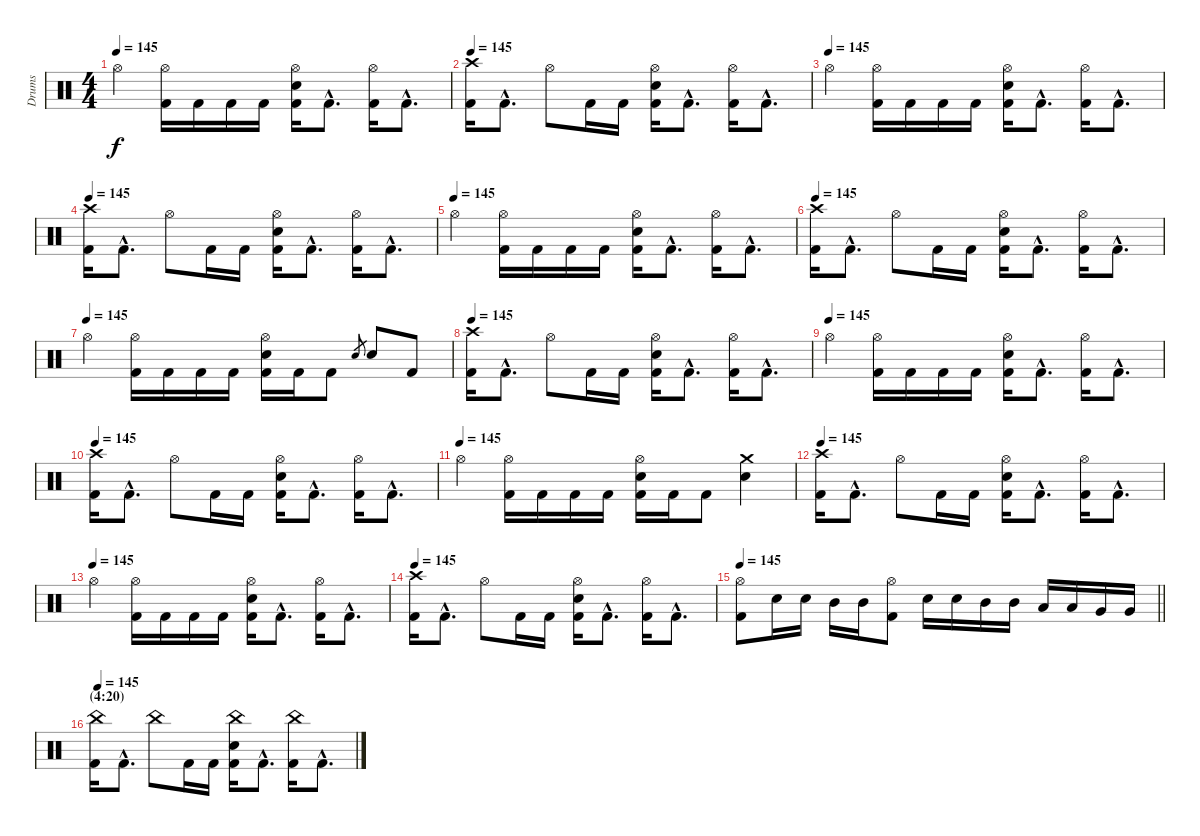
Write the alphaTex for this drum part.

\track ("Drums" "Drums") {instrument percussion}
\staff {score}
\articulation defaults
\ts (4 4)
\tempo 145
\clef neutral
\ks c "Hi-Hat (open)".4{dy f}
("Hi-Hat (open)" "Kick (hit) 2").16 "Kick (hit) 2".16 "Kick (hit) 2".16 "Kick (hit) 2".16 ("Hi-Hat (open)" "Snare (hit) 2" "Kick (hit) 2").16 "Kick (hit) 2"{hac}.8{d} ("Hi-Hat (open)" "Kick (hit) 2").16 "Kick (hit) 2"{hac}.8{d} |
\tempo 145
("Crash high (hit)" "Kick (hit) 2").16 "Kick (hit) 2"{hac}.8{d} "Hi-Hat (open)".8 "Kick (hit) 2".16 "Kick (hit) 2".16 ("Hi-Hat (open)" "Snare (hit) 2" "Kick (hit) 2").16 "Kick (hit) 2"{hac}.8{d} ("Hi-Hat (open)" "Kick (hit) 2").16 "Kick (hit) 2"{hac}.8{d} |
\tempo (145)
"Hi-Hat (open)".4 ("Hi-Hat (open)" "Kick (hit) 2").16 "Kick (hit) 2".16 "Kick (hit) 2".16 "Kick (hit) 2".16 ("Hi-Hat (open)" "Snare (hit) 2" "Kick (hit) 2").16 "Kick (hit) 2"{hac}.8{d} ("Hi-Hat (open)" "Kick (hit) 2").16 "Kick (hit) 2"{hac}.8{d} |
\tempo 145
("Crash high (hit)" "Kick (hit) 2").16 "Kick (hit) 2"{hac}.8{d} "Hi-Hat (open)".8 "Kick (hit) 2".16 "Kick (hit) 2".16 ("Hi-Hat (open)" "Snare (hit) 2" "Kick (hit) 2").16 "Kick (hit) 2"{hac}.8{d} ("Hi-Hat (open)" "Kick (hit) 2").16 "Kick (hit) 2"{hac}.8{d} |
\tempo (145)
"Hi-Hat (open)".4 ("Hi-Hat (open)" "Kick (hit) 2").16 "Kick (hit) 2".16 "Kick (hit) 2".16 "Kick (hit) 2".16 ("Hi-Hat (open)" "Snare (hit) 2" "Kick (hit) 2").16 "Kick (hit) 2"{hac}.8{d} ("Hi-Hat (open)" "Kick (hit) 2").16 "Kick (hit) 2"{hac}.8{d} |
\tempo 145
("Crash high (hit)" "Kick (hit) 2").16 "Kick (hit) 2"{hac}.8{d} "Hi-Hat (open)".8 "Kick (hit) 2".16 "Kick (hit) 2".16 ("Hi-Hat (open)" "Snare (hit) 2" "Kick (hit) 2").16 "Kick (hit) 2"{hac}.8{d} ("Hi-Hat (open)" "Kick (hit) 2").16 "Kick (hit) 2"{hac}.8{d} |
\tempo (145)
"Hi-Hat (open)".4 ("Hi-Hat (open)" "Kick (hit) 2").16 "Kick (hit) 2".16 "Kick (hit) 2".16 "Kick (hit) 2".16 ("Hi-Hat (open)" "Snare (hit) 2" "Kick (hit) 2").16 "Kick (hit) 2".16 "Kick (hit) 2".8 "Snare (hit) 2".8{gr} "Snare (hit) 2".8 "Kick (hit) 2".8 |
\tempo 145
("Crash high (hit)" "Kick (hit) 2").16 "Kick (hit) 2"{hac}.8{d} "Hi-Hat (open)".8 "Kick (hit) 2".16 "Kick (hit) 2".16 ("Hi-Hat (open)" "Snare (hit) 2" "Kick (hit) 2").16 "Kick (hit) 2"{hac}.8{d} ("Hi-Hat (open)" "Kick (hit) 2").16 "Kick (hit) 2"{hac}.8{d} |
\tempo (145)
"Hi-Hat (open)".4 ("Hi-Hat (open)" "Kick (hit) 2").16 "Kick (hit) 2".16 "Kick (hit) 2".16 "Kick (hit) 2".16 ("Hi-Hat (open)" "Snare (hit) 2" "Kick (hit) 2").16 "Kick (hit) 2"{hac}.8{d} ("Hi-Hat (open)" "Kick (hit) 2").16 "Kick (hit) 2"{hac}.8{d} |
\tempo 145
("Crash high (hit)" "Kick (hit) 2").16 "Kick (hit) 2"{hac}.8{d} "Hi-Hat (open)".8 "Kick (hit) 2".16 "Kick (hit) 2".16 ("Hi-Hat (open)" "Snare (hit) 2" "Kick (hit) 2").16 "Kick (hit) 2"{hac}.8{d} ("Hi-Hat (open)" "Kick (hit) 2").16 "Kick (hit) 2"{hac}.8{d} |
\tempo (145)
"Hi-Hat (open)".4 ("Hi-Hat (open)" "Kick (hit) 2").16 "Kick (hit) 2".16 "Kick (hit) 2".16 "Kick (hit) 2".16 ("Hi-Hat (open)" "Snare (hit) 2" "Kick (hit) 2").16 "Kick (hit) 2".16 "Kick (hit) 2".8 ("Crash medium (hit)" "Snare (hit) 2").4 |
\tempo 145
("Crash high (hit)" "Kick (hit) 2").16 "Kick (hit) 2"{hac}.8{d} "Hi-Hat (open)".8 "Kick (hit) 2".16 "Kick (hit) 2".16 ("Hi-Hat (open)" "Snare (hit) 2" "Kick (hit) 2").16 "Kick (hit) 2"{hac}.8{d} ("Hi-Hat (open)" "Kick (hit) 2").16 "Kick (hit) 2"{hac}.8{d} |
\tempo (145)
"Hi-Hat (open)".4 ("Hi-Hat (open)" "Kick (hit) 2").16 "Kick (hit) 2".16 "Kick (hit) 2".16 "Kick (hit) 2".16 ("Hi-Hat (open)" "Snare (hit) 2" "Kick (hit) 2").16 "Kick (hit) 2"{hac}.8{d} ("Hi-Hat (open)" "Kick (hit) 2").16 "Kick (hit) 2"{hac}.8{d} |
\tempo 145
("Crash high (hit)" "Kick (hit) 2").16 "Kick (hit) 2"{hac}.8{d} "Hi-Hat (open)".8 "Kick (hit) 2".16 "Kick (hit) 2".16 ("Hi-Hat (open)" "Snare (hit) 2" "Kick (hit) 2").16 "Kick (hit) 2"{hac}.8{d} ("Hi-Hat (open)" "Kick (hit) 2").16 "Kick (hit) 2"{hac}.8{d} |
\tempo 145
\barLineRight lightlight
("Hi-Hat (open)" "Kick (hit) 2").8 "Snare (hit) 2".16 "Snare (hit) 2".16 "Mid Tom (hit)".16 "Mid Tom (hit)".16 ("Hi-Hat (open)" "Kick (hit) 2").8 "Snare (hit) 2".16 "Snare (hit) 2".16 "Mid Tom (hit)".16 "Mid Tom (hit)".16 "Low Tom (hit)".16 "Low Tom (hit)".16 "Very Low Tom (hit)".16 "Very Low Tom (hit)".16 |
\section ("" "(4:20)")
\tempo 145
("China (hit)" "Kick (hit) 2").16 "Kick (hit) 2"{hac}.8{d} "China (hit)".8 "Kick (hit) 2".16 "Kick (hit) 2".16 ("China (hit)" "Snare (hit) 2" "Kick (hit) 2").16 "Kick (hit) 2"{hac}.8{d} ("China (hit)" "Kick (hit) 2").16 "Kick (hit) 2"{hac}.8{d}
